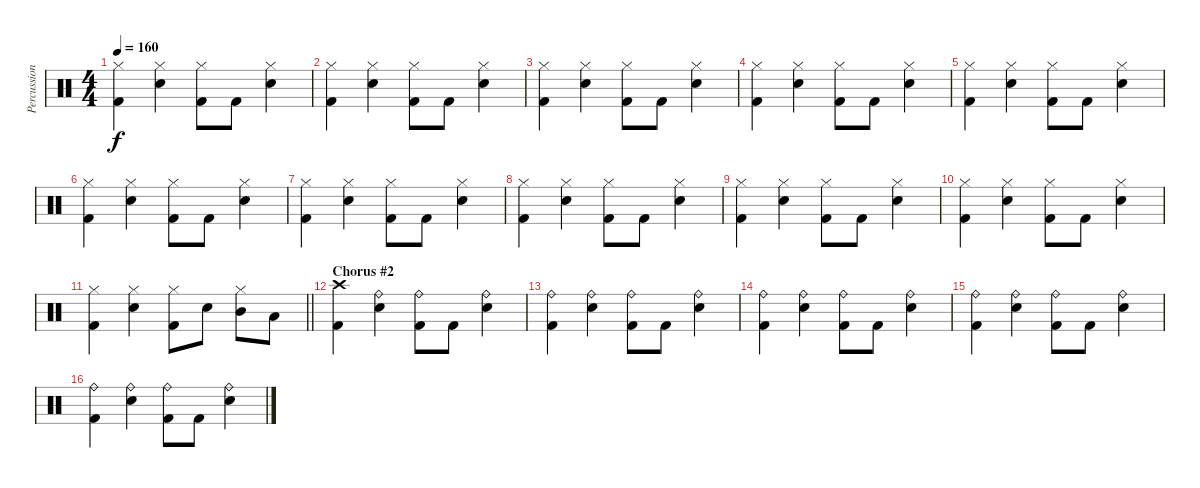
\track ("Percussion" "Percussion") {instrument percussion}
\staff {score}
\articulation defaults
\ts (4 4)
\tempo 160
\clef neutral
\ks c
("Hi-Hat (closed)" "Kick (hit) 2").4{dy f} ("Hi-Hat (closed)" "Electric Snare (hit)").4 ("Hi-Hat (closed)" "Kick (hit) 2").8 "Kick (hit) 2".8 ("Hi-Hat (closed)" "Electric Snare (hit)").4 |
("Hi-Hat (closed)" "Kick (hit) 2").4 ("Hi-Hat (closed)" "Electric Snare (hit)").4 ("Hi-Hat (closed)" "Kick (hit) 2").8 "Kick (hit) 2".8 ("Hi-Hat (closed)" "Electric Snare (hit)").4 |
("Hi-Hat (closed)" "Kick (hit) 2").4 ("Hi-Hat (closed)" "Electric Snare (hit)").4 ("Hi-Hat (closed)" "Kick (hit) 2").8 "Kick (hit) 2".8 ("Hi-Hat (closed)" "Electric Snare (hit)").4 |
("Hi-Hat (closed)" "Kick (hit) 2").4 ("Hi-Hat (closed)" "Electric Snare (hit)").4 ("Hi-Hat (closed)" "Kick (hit) 2").8 "Kick (hit) 2".8 ("Hi-Hat (closed)" "Electric Snare (hit)").4 |
("Hi-Hat (closed)" "Kick (hit) 2").4 ("Hi-Hat (closed)" "Electric Snare (hit)").4 ("Hi-Hat (closed)" "Kick (hit) 2").8 "Kick (hit) 2".8 ("Hi-Hat (closed)" "Electric Snare (hit)").4 |
("Hi-Hat (closed)" "Kick (hit) 2").4 ("Hi-Hat (closed)" "Electric Snare (hit)").4 ("Hi-Hat (closed)" "Kick (hit) 2").8 "Kick (hit) 2".8 ("Hi-Hat (closed)" "Electric Snare (hit)").4 |
("Hi-Hat (closed)" "Kick (hit) 2").4 ("Hi-Hat (closed)" "Electric Snare (hit)").4 ("Hi-Hat (closed)" "Kick (hit) 2").8 "Kick (hit) 2".8 ("Hi-Hat (closed)" "Electric Snare (hit)").4 |
("Hi-Hat (closed)" "Kick (hit) 2").4 ("Hi-Hat (closed)" "Electric Snare (hit)").4 ("Hi-Hat (closed)" "Kick (hit) 2").8 "Kick (hit) 2".8 ("Hi-Hat (closed)" "Electric Snare (hit)").4 |
("Hi-Hat (closed)" "Kick (hit) 2").4 ("Hi-Hat (closed)" "Electric Snare (hit)").4 ("Hi-Hat (closed)" "Kick (hit) 2").8 "Kick (hit) 2".8 ("Hi-Hat (closed)" "Electric Snare (hit)").4 |
("Hi-Hat (closed)" "Kick (hit) 2").4 ("Hi-Hat (closed)" "Electric Snare (hit)").4 ("Hi-Hat (closed)" "Kick (hit) 2").8 "Kick (hit) 2".8 ("Hi-Hat (closed)" "Electric Snare (hit)").4 |
\barLineRight lightlight
("Hi-Hat (closed)" "Kick (hit) 2").4 ("Hi-Hat (closed)" "Electric Snare (hit)").4 ("Hi-Hat (closed)" "Kick (hit) 2").8 "Electric Snare (hit)".8 ("Hi-Hat (closed)" "Mid Tom (hit)").8 "Low Tom (hit)".8 |
\section ("" "Chorus #2")
("Crash high (hit)" "Kick (hit) 2").4 ("Ride (bell)" "Electric Snare (hit)").4 ("Ride (bell)" "Kick (hit) 2").8 "Kick (hit) 2".8 ("Ride (bell)" "Electric Snare (hit)").4 |
("Ride (bell)" "Kick (hit) 2").4 ("Ride (bell)" "Electric Snare (hit)").4 ("Ride (bell)" "Kick (hit) 2").8 "Kick (hit) 2".8 ("Ride (bell)" "Electric Snare (hit)").4 |
("Ride (bell)" "Kick (hit) 2").4 ("Ride (bell)" "Electric Snare (hit)").4 ("Ride (bell)" "Kick (hit) 2").8 "Kick (hit) 2".8 ("Ride (bell)" "Electric Snare (hit)").4 |
("Ride (bell)" "Kick (hit) 2").4 ("Ride (bell)" "Electric Snare (hit)").4 ("Ride (bell)" "Kick (hit) 2").8 "Kick (hit) 2".8 ("Ride (bell)" "Electric Snare (hit)").4 |
("Ride (bell)" "Kick (hit) 2").4 ("Ride (bell)" "Electric Snare (hit)").4 ("Ride (bell)" "Kick (hit) 2").8 "Kick (hit) 2".8 ("Ride (bell)" "Electric Snare (hit)").4
